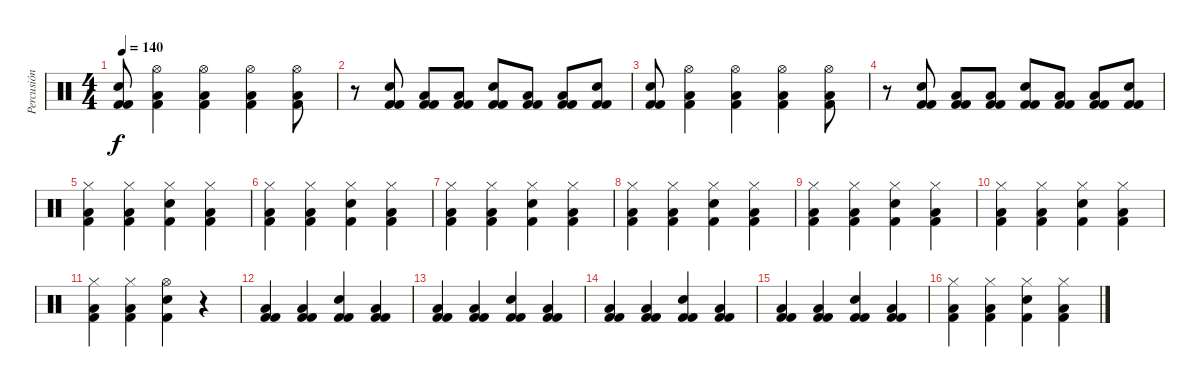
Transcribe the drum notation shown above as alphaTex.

\track ("Percusión" "Percusión") {instrument percussion}
\staff {score}
\articulation defaults
\ts (4 4)
\tempo 140
\clef neutral
\ks c
("Kick (hit) 2" "Kick (hit) 2" "Snare (hit) 2").8{dy f} ("Kick (hit) 2" "Low Tom (hit)" "Hi-Hat (open)").4 ("Kick (hit) 2" "Low Tom (hit)" "Hi-Hat (open)").4 ("Kick (hit) 2" "Low Tom (hit)" "Hi-Hat (open)").4 ("Kick (hit) 2" "Low Tom (hit)" "Hi-Hat (open)").8 |
r.8 ("Kick (hit) 2" "Kick (hit) 2" "Snare (hit) 2").8 ("Kick (hit) 2" "Kick (hit) 2" "Low Tom (hit)").8 ("Kick (hit) 2" "Kick (hit) 2" "Low Tom (hit)").8 ("Kick (hit) 2" "Kick (hit) 2" "Snare (hit) 2").8 ("Kick (hit) 2" "Kick (hit) 2" "Low Tom (hit)").8 ("Kick (hit) 2" "Kick (hit) 2" "Low Tom (hit)").8 ("Kick (hit) 2" "Kick (hit) 2" "Snare (hit) 2").8 |
("Kick (hit) 2" "Kick (hit) 2" "Snare (hit) 2").8 ("Kick (hit) 2" "Low Tom (hit)" "Hi-Hat (open)").4 ("Kick (hit) 2" "Low Tom (hit)" "Hi-Hat (open)").4 ("Kick (hit) 2" "Low Tom (hit)" "Hi-Hat (open)").4 ("Kick (hit) 2" "Low Tom (hit)" "Hi-Hat (open)").8 |
r.8 ("Kick (hit) 2" "Kick (hit) 2" "Snare (hit) 2").8 ("Kick (hit) 2" "Kick (hit) 2" "Low Tom (hit)").8 ("Kick (hit) 2" "Kick (hit) 2" "Low Tom (hit)").8 ("Kick (hit) 2" "Kick (hit) 2" "Snare (hit) 2").8 ("Kick (hit) 2" "Kick (hit) 2" "Low Tom (hit)").8 ("Kick (hit) 2" "Kick (hit) 2" "Low Tom (hit)").8 ("Kick (hit) 2" "Kick (hit) 2" "Snare (hit) 2").8 |
("Kick (hit) 2" "Low Tom (hit)" "Hi-Hat (closed)").4 ("Kick (hit) 2" "Low Tom (hit)" "Hi-Hat (closed)").4 ("Kick (hit) 2" "Snare (hit) 2" "Hi-Hat (closed)").4 ("Kick (hit) 2" "Low Tom (hit)" "Hi-Hat (closed)").4 |
("Kick (hit) 2" "Low Tom (hit)" "Hi-Hat (closed)").4 ("Kick (hit) 2" "Low Tom (hit)" "Hi-Hat (closed)").4 ("Kick (hit) 2" "Snare (hit) 2" "Hi-Hat (closed)").4 ("Kick (hit) 2" "Low Tom (hit)" "Hi-Hat (closed)").4 |
("Kick (hit) 2" "Low Tom (hit)" "Hi-Hat (closed)").4 ("Kick (hit) 2" "Low Tom (hit)" "Hi-Hat (closed)").4 ("Kick (hit) 2" "Snare (hit) 2" "Hi-Hat (closed)").4 ("Kick (hit) 2" "Low Tom (hit)" "Hi-Hat (closed)").4 |
("Kick (hit) 2" "Low Tom (hit)" "Hi-Hat (closed)").4 ("Kick (hit) 2" "Low Tom (hit)" "Hi-Hat (closed)").4 ("Kick (hit) 2" "Snare (hit) 2" "Hi-Hat (closed)").4 ("Kick (hit) 2" "Low Tom (hit)" "Hi-Hat (closed)").4 |
("Kick (hit) 2" "Low Tom (hit)" "Hi-Hat (closed)").4 ("Kick (hit) 2" "Low Tom (hit)" "Hi-Hat (closed)").4 ("Kick (hit) 2" "Snare (hit) 2" "Hi-Hat (closed)").4 ("Kick (hit) 2" "Low Tom (hit)" "Hi-Hat (closed)").4 |
("Kick (hit) 2" "Low Tom (hit)" "Hi-Hat (closed)").4 ("Kick (hit) 2" "Low Tom (hit)" "Hi-Hat (closed)").4 ("Kick (hit) 2" "Snare (hit) 2" "Hi-Hat (closed)").4 ("Kick (hit) 2" "Low Tom (hit)" "Hi-Hat (closed)").4 |
("Kick (hit) 2" "Low Tom (hit)" "Hi-Hat (closed)").4 ("Kick (hit) 2" "Low Tom (hit)" "Hi-Hat (closed)").4 ("Kick (hit) 2" "Snare (hit) 2" "Hi-Hat (open)").4 r.4 |
("Kick (hit) 2" "Kick (hit) 2" "Low Tom (hit)").4 ("Kick (hit) 2" "Kick (hit) 2" "Low Tom (hit)").4 ("Kick (hit) 2" "Kick (hit) 2" "Snare (hit) 2").4 ("Kick (hit) 2" "Kick (hit) 2" "Low Tom (hit)").4 |
("Kick (hit) 2" "Kick (hit) 2" "Low Tom (hit)").4 ("Kick (hit) 2" "Kick (hit) 2" "Low Tom (hit)").4 ("Kick (hit) 2" "Kick (hit) 2" "Snare (hit) 2").4 ("Kick (hit) 2" "Kick (hit) 2" "Low Tom (hit)").4 |
("Kick (hit) 2" "Kick (hit) 2" "Low Tom (hit)").4 ("Kick (hit) 2" "Kick (hit) 2" "Low Tom (hit)").4 ("Kick (hit) 2" "Kick (hit) 2" "Snare (hit) 2").4 ("Kick (hit) 2" "Kick (hit) 2" "Low Tom (hit)").4 |
("Kick (hit) 2" "Kick (hit) 2" "Low Tom (hit)").4 ("Kick (hit) 2" "Kick (hit) 2" "Low Tom (hit)").4 ("Kick (hit) 2" "Kick (hit) 2" "Snare (hit) 2").4 ("Kick (hit) 2" "Kick (hit) 2" "Low Tom (hit)").4 |
("Kick (hit) 2" "Low Tom (hit)" "Hi-Hat (closed)").4 ("Kick (hit) 2" "Low Tom (hit)" "Hi-Hat (closed)").4 ("Kick (hit) 2" "Snare (hit) 2" "Hi-Hat (closed)").4 ("Kick (hit) 2" "Low Tom (hit)" "Hi-Hat (closed)").4
